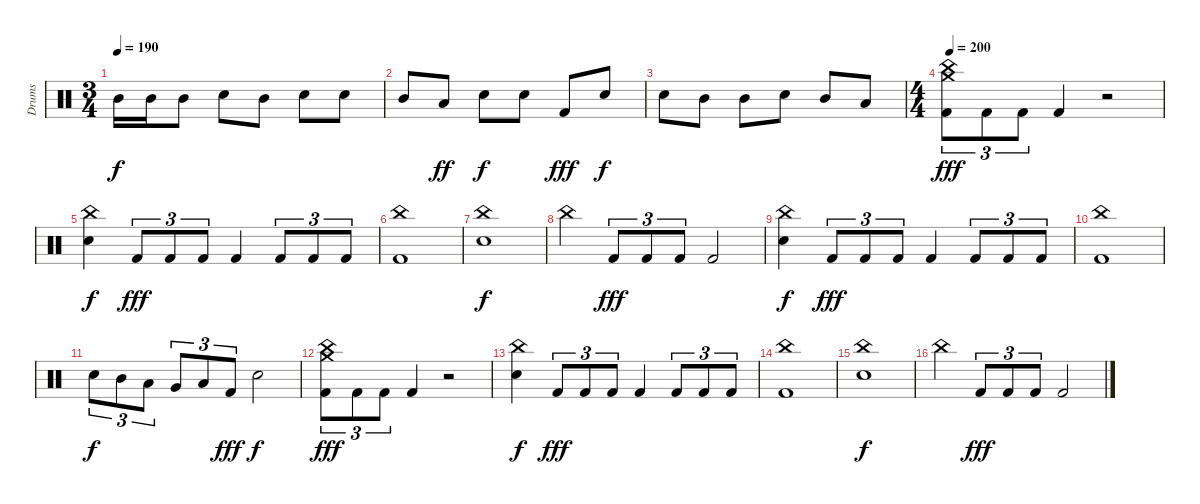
\track ("Drums" "Drums") {instrument percussion}
\staff {score}
\articulation defaults
\ts (3 4)
\tempo 190
\clef neutral
\ks c "Mid Tom (hit)".16{dy f} "Mid Tom (hit)".16 "Mid Tom (hit)".8 "Snare (hit) 2".8 "Mid Tom (hit)".8 "Snare (hit) 2".8 "Snare (hit) 2".8
|
"Mid Tom (hit)".8 "Low Tom (hit)".8{dy ff} "Snare (hit) 2".8{dy f} "Snare (hit) 2".8 "Kick (hit) 2".8{dy fff} "Snare (hit) 2".8{dy f} |
"Snare (hit) 2".8 "Mid Tom (hit)".8 "Mid Tom (hit)".8 "Snare (hit) 2".8 "Mid Tom (hit)".8 "Low Tom (hit)".8 |
\ts (4 4)
\tempo 200
("Crash medium (hit)" "China (hit)" "Kick (hit) 2").8{tu (3 2) dy fff} "Kick (hit) 2".8{tu (3 2)} "Kick (hit) 2".8{tu (3 2)} "Kick (hit) 2".4 r.2 |
("China (hit)" "Snare (hit) 2").4{dy f} "Kick (hit) 2".8{tu (3 2) dy fff} "Kick (hit) 2".8{tu (3 2)} "Kick (hit) 2".8{tu (3 2)} "Kick (hit) 2".4 "Kick (hit) 2".8{tu (3 2)} "Kick (hit) 2".8{tu (3 2)} "Kick (hit) 2".8{tu (3 2)} |
("China (hit)" "Kick (hit) 2").1 |
("China (hit)" "Snare (hit) 2").1{dy f} |
"China (hit)".4 "Kick (hit) 2".8{tu (3 2) dy fff} "Kick (hit) 2".8{tu (3 2)} "Kick (hit) 2".8{tu (3 2)} "Kick (hit) 2".2 |
("China (hit)" "Snare (hit) 2").4{dy f} "Kick (hit) 2".8{tu (3 2) dy fff} "Kick (hit) 2".8{tu (3 2)} "Kick (hit) 2".8{tu (3 2)} "Kick (hit) 2".4 "Kick (hit) 2".8{tu (3 2)} "Kick (hit) 2".8{tu (3 2)} "Kick (hit) 2".8{tu (3 2)} |
("China (hit)" "Kick (hit) 2").1 |
"Snare (hit) 2".8{tu (3 2) dy f} "Mid Tom (hit)".8{tu (3 2)} "Low Tom (hit)".8{tu (3 2)} "Very Low Tom (hit)".8{tu (3 2)} "Low Floor Tom (hit)".8{tu (3 2)} "Kick (hit) 2".8{tu (3 2) dy fff} "Snare (hit) 2".2{dy f} |
("Crash medium (hit)" "China (hit)" "Kick (hit) 2").8{tu (3 2) dy fff} "Kick (hit) 2".8{tu (3 2)} "Kick (hit) 2".8{tu (3 2)} "Kick (hit) 2".4 r.2 |
("China (hit)" "Snare (hit) 2").4{dy f} "Kick (hit) 2".8{tu (3 2) dy fff} "Kick (hit) 2".8{tu (3 2)} "Kick (hit) 2".8{tu (3 2)} "Kick (hit) 2".4 "Kick (hit) 2".8{tu (3 2)} "Kick (hit) 2".8{tu (3 2)} "Kick (hit) 2".8{tu (3 2)} |
("China (hit)" "Kick (hit) 2").1 |
("China (hit)" "Snare (hit) 2").1{dy f} |
"China (hit)".4 "Kick (hit) 2".8{tu (3 2) dy fff} "Kick (hit) 2".8{tu (3 2)} "Kick (hit) 2".8{tu (3 2)} "Kick (hit) 2".2
